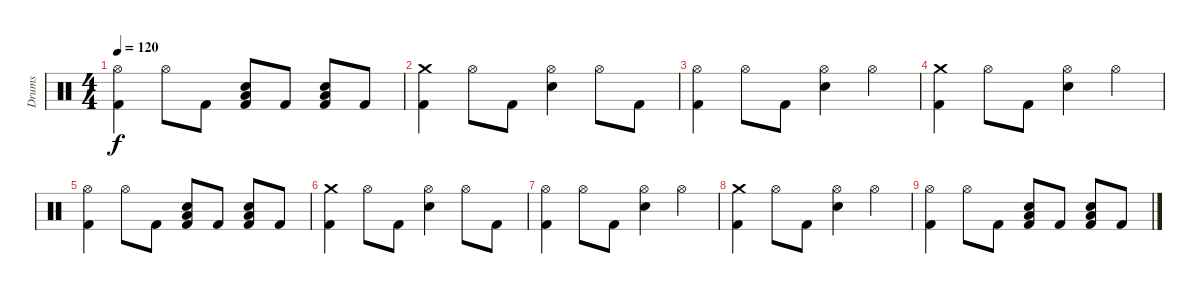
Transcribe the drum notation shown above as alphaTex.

\track ("Drums" "Drums") {instrument percussion}
\staff {score}
\articulation defaults
\ts (4 4)
\tempo 120
\clef neutral
\ks c
("Hi-Hat (open)" "Kick (hit) 2").4{dy f} "Hi-Hat (open)".8 "Kick (hit) 2".8 ("Electric Snare (hit)" "Low Tom (hit)" "Kick (hit) 2").8 "Kick (hit) 2".8 ("Electric Snare (hit)" "Low Floor Tom (hit)" "Kick (hit) 2").8 "Kick (hit) 2".8 |
("Crash medium (hit)" "Kick (hit) 2").4 "Hi-Hat (open)".8 "Kick (hit) 2".8 ("Hi-Hat (open)" "Electric Snare (hit)").4 "Hi-Hat (open)".8 "Kick (hit) 2".8 |
("Hi-Hat (open)" "Kick (hit) 2").4 "Hi-Hat (open)".8 "Kick (hit) 2".8 ("Hi-Hat (open)" "Electric Snare (hit)").4 "Hi-Hat (open)".4 |
("Crash medium (hit)" "Kick (hit) 2").4 "Hi-Hat (open)".8 "Kick (hit) 2".8 ("Hi-Hat (open)" "Electric Snare (hit)").4 "Hi-Hat (open)".4 |
("Hi-Hat (open)" "Kick (hit) 2").4 "Hi-Hat (open)".8 "Kick (hit) 2".8 ("Electric Snare (hit)" "Low Tom (hit)" "Kick (hit) 2").8 "Kick (hit) 2".8 ("Electric Snare (hit)" "Low Floor Tom (hit)" "Kick (hit) 2").8 "Kick (hit) 2".8 |
("Crash medium (hit)" "Kick (hit) 2").4 "Hi-Hat (open)".8 "Kick (hit) 2".8 ("Hi-Hat (open)" "Electric Snare (hit)").4 "Hi-Hat (open)".8 "Kick (hit) 2".8 |
("Hi-Hat (open)" "Kick (hit) 2").4 "Hi-Hat (open)".8 "Kick (hit) 2".8 ("Hi-Hat (open)" "Electric Snare (hit)").4 "Hi-Hat (open)".4 |
("Crash medium (hit)" "Kick (hit) 2").4 "Hi-Hat (open)".8 "Kick (hit) 2".8 ("Hi-Hat (open)" "Electric Snare (hit)").4 "Hi-Hat (open)".4 |
("Hi-Hat (open)" "Kick (hit) 2").4 "Hi-Hat (open)".8 "Kick (hit) 2".8 ("Electric Snare (hit)" "Low Tom (hit)" "Kick (hit) 2").8 "Kick (hit) 2".8 ("Electric Snare (hit)" "Low Floor Tom (hit)" "Kick (hit) 2").8 "Kick (hit) 2".8
